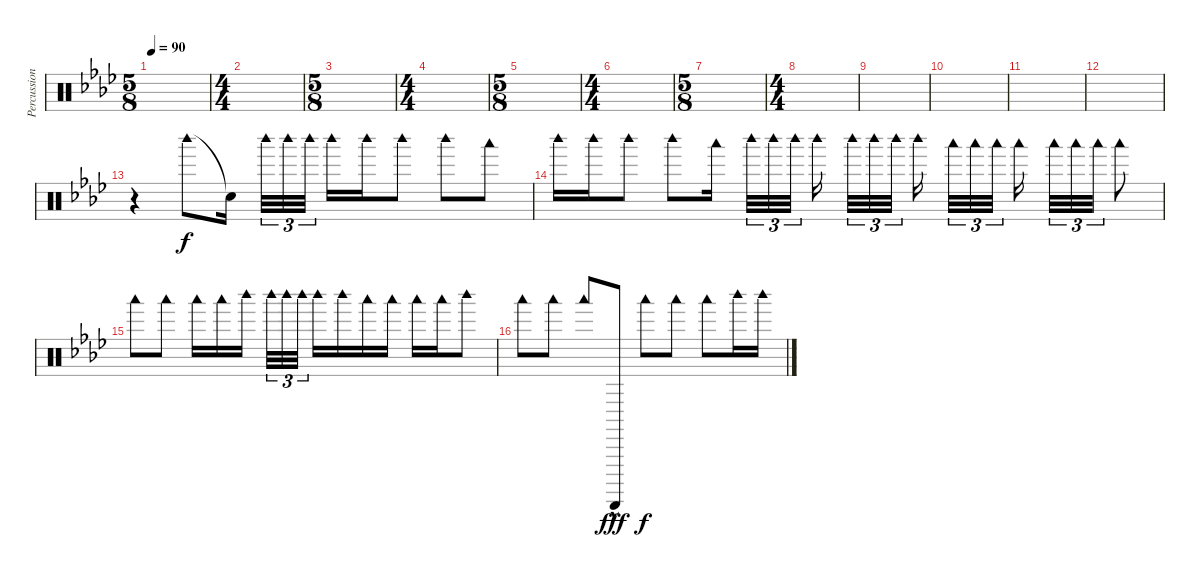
\track ("Percussion" "Percussion") {instrument percussion}
\staff {score}
\articulation defaults
\ts (5 8)
\tempo 90
\clef neutral
\ks ab
|
\ts (4 4)
|
\ts (5 8)
|
\ts (4 4)
|
\ts (5 8)
|
\ts (4 4)
|
\ts (5 8)
|
\ts (4 4)
|
|
|
|
|
r.4 "Woodblock high (hit)".8 "Snare (hit)"{t}.16{beam splitsecondary} "Woodblock high (hit)".32{tu (3 2)} "Woodblock high (hit)".32{tu (3 2)} "Woodblock high (hit)".32{tu (3 2)} "Woodblock high (hit)".16 "Woodblock high (hit)".16 "Woodblock high (hit)".8 "Woodblock high (hit)".8 "Woodblock low (hit)".8 |
"Woodblock high (hit)".16 "Woodblock high (hit)".16 "Woodblock high (hit)".8 "Woodblock high (hit)".8 "Woodblock low (hit)".16{beam splitsecondary} "Woodblock high (hit)".32{tu (3 2)} "Woodblock high (hit)".32{tu (3 2)} "Woodblock high (hit)".32{tu (3 2)} "Woodblock high (hit)".16{beam splitsecondary} "Woodblock high (hit)".32{tu (3 2)} "Woodblock high (hit)".32{tu (3 2)} "Woodblock high (hit)".32{tu (3 2) beam splitsecondary} "Woodblock high (hit)".16{beam splitsecondary} "Woodblock low (hit)".32{tu (3 2)} "Woodblock low (hit)".32{tu (3 2)} "Woodblock low (hit)".32{tu (3 2)} "Woodblock low (hit)".16{beam splitsecondary} "Woodblock low (hit)".32{tu (3 2)} "Woodblock low (hit)".32{tu (3 2)} "Woodblock low (hit)".32{tu (3 2)} "Woodblock low (hit)".8 |
"Woodblock low (hit)".8 "Woodblock low (hit)".8 "Woodblock low (hit)".16 "Woodblock low (hit)".16 "Woodblock high (hit)".16{beam splitsecondary} "Woodblock high (hit)".32{tu (3 2)} "Woodblock high (hit)".32{tu (3 2)} "Woodblock high (hit)".32{tu (3 2)} "Woodblock high (hit)".16 "Woodblock high (hit)".16 "Woodblock low (hit)".16 "Woodblock low (hit)".16 "Woodblock low (hit)".16 "Woodblock low (hit)".16 "Woodblock high (hit)".8 |
"Woodblock low (hit)".8 "Woodblock low (hit)".8 "Woodblock low (hit)".8 "Guiro (scrap-return)"{hac}.8{dy fff} "Woodblock low (hit)".8{dy f} "Woodblock low (hit)".8 "Woodblock low (hit)".8 "Woodblock high (hit)".16 "Woodblock high (hit)".16
